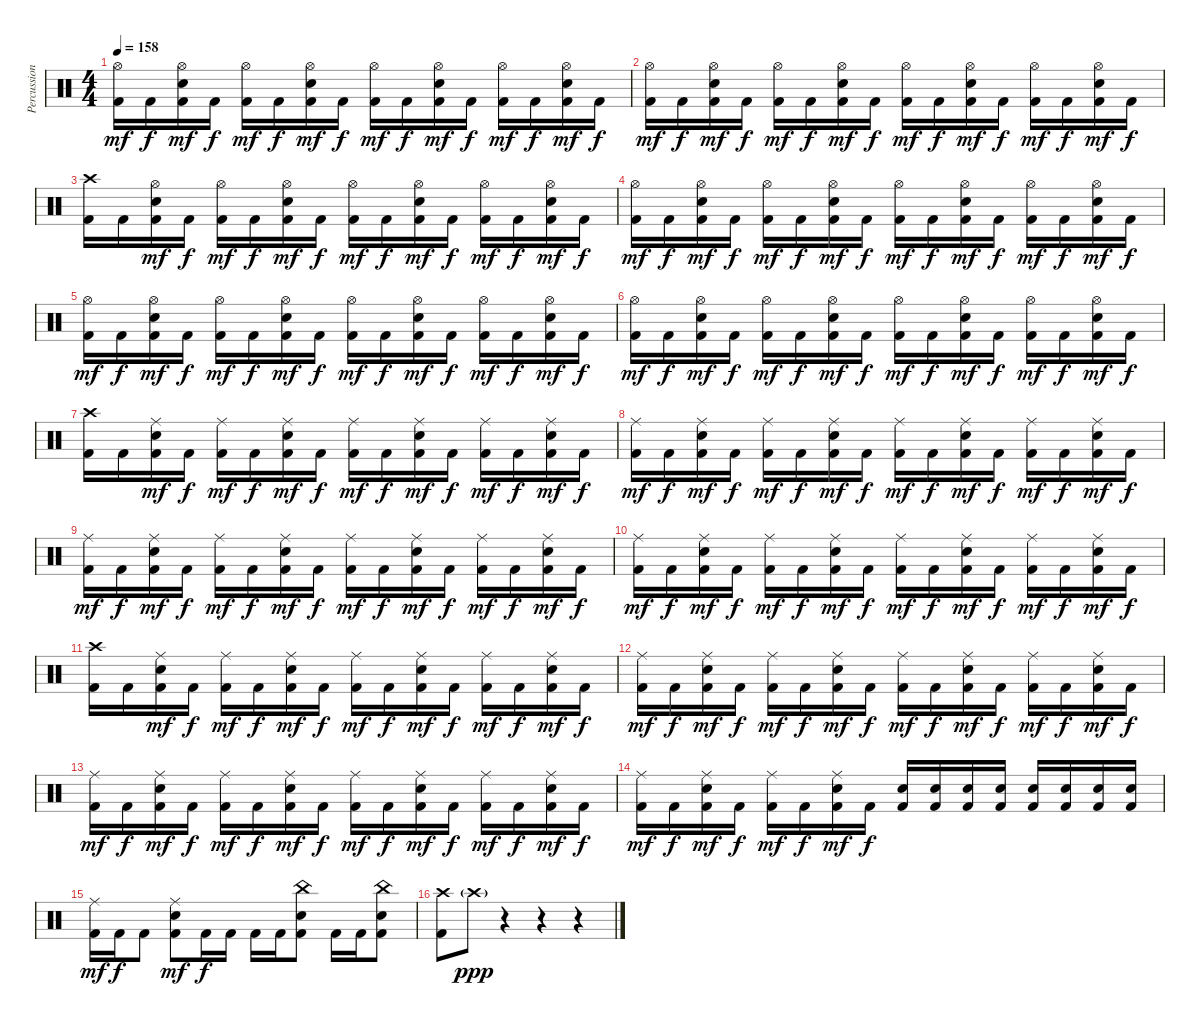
\track ("Percussion" "Percussion") {instrument percussion}
\staff {score}
\articulation defaults
\ts (4 4)
\tempo 158
\clef neutral
\ks c
("Hi-Hat (open)" "Kick (hit) 2").16{dy mf} "Kick (hit) 2".16{dy f} ("Hi-Hat (open)" "Electric Snare (hit)" "Kick (hit) 2").16{dy mf} "Kick (hit) 2".16{dy f} ("Hi-Hat (open)" "Kick (hit) 2").16{dy mf} "Kick (hit) 2".16{dy f} ("Hi-Hat (open)" "Electric Snare (hit)" "Kick (hit) 2").16{dy mf} "Kick (hit) 2".16{dy f} ("Hi-Hat (open)" "Kick (hit) 2").16{dy mf} "Kick (hit) 2".16{dy f} ("Hi-Hat (open)" "Electric Snare (hit)" "Kick (hit) 2").16{dy mf} "Kick (hit) 2".16{dy f} ("Hi-Hat (open)" "Kick (hit) 2").16{dy mf} "Kick (hit) 2".16{dy f} ("Hi-Hat (open)" "Electric Snare (hit)" "Kick (hit) 2").16{dy mf} "Kick (hit) 2".16{dy f} |
("Hi-Hat (open)" "Kick (hit) 2").16{dy mf} "Kick (hit) 2".16{dy f} ("Hi-Hat (open)" "Electric Snare (hit)" "Kick (hit) 2").16{dy mf} "Kick (hit) 2".16{dy f} ("Hi-Hat (open)" "Kick (hit) 2").16{dy mf} "Kick (hit) 2".16{dy f} ("Hi-Hat (open)" "Electric Snare (hit)" "Kick (hit) 2").16{dy mf} "Kick (hit) 2".16{dy f} ("Hi-Hat (open)" "Kick (hit) 2").16{dy mf} "Kick (hit) 2".16{dy f} ("Hi-Hat (open)" "Electric Snare (hit)" "Kick (hit) 2").16{dy mf} "Kick (hit) 2".16{dy f} ("Hi-Hat (open)" "Kick (hit) 2").16{dy mf} "Kick (hit) 2".16{dy f} ("Hi-Hat (open)" "Electric Snare (hit)" "Kick (hit) 2").16{dy mf} "Kick (hit) 2".16{dy f} |
("Crash high (hit)" "Kick (hit) 2").16 "Kick (hit) 2".16 ("Hi-Hat (open)" "Electric Snare (hit)" "Kick (hit) 2").16{dy mf} "Kick (hit) 2".16{dy f} ("Hi-Hat (open)" "Kick (hit) 2").16{dy mf} "Kick (hit) 2".16{dy f} ("Hi-Hat (open)" "Electric Snare (hit)" "Kick (hit) 2").16{dy mf} "Kick (hit) 2".16{dy f} ("Hi-Hat (open)" "Kick (hit) 2").16{dy mf} "Kick (hit) 2".16{dy f} ("Hi-Hat (open)" "Electric Snare (hit)" "Kick (hit) 2").16{dy mf} "Kick (hit) 2".16{dy f} ("Hi-Hat (open)" "Kick (hit) 2").16{dy mf} "Kick (hit) 2".16{dy f} ("Hi-Hat (open)" "Electric Snare (hit)" "Kick (hit) 2").16{dy mf} "Kick (hit) 2".16{dy f} |
("Hi-Hat (open)" "Kick (hit) 2").16{dy mf} "Kick (hit) 2".16{dy f} ("Hi-Hat (open)" "Electric Snare (hit)" "Kick (hit) 2").16{dy mf} "Kick (hit) 2".16{dy f} ("Hi-Hat (open)" "Kick (hit) 2").16{dy mf} "Kick (hit) 2".16{dy f} ("Hi-Hat (open)" "Electric Snare (hit)" "Kick (hit) 2").16{dy mf} "Kick (hit) 2".16{dy f} ("Hi-Hat (open)" "Kick (hit) 2").16{dy mf} "Kick (hit) 2".16{dy f} ("Hi-Hat (open)" "Electric Snare (hit)" "Kick (hit) 2").16{dy mf} "Kick (hit) 2".16{dy f} ("Hi-Hat (open)" "Kick (hit) 2").16{dy mf} "Kick (hit) 2".16{dy f} ("Hi-Hat (open)" "Electric Snare (hit)" "Kick (hit) 2").16{dy mf} "Kick (hit) 2".16{dy f} |
("Hi-Hat (open)" "Kick (hit) 2").16{dy mf} "Kick (hit) 2".16{dy f} ("Hi-Hat (open)" "Electric Snare (hit)" "Kick (hit) 2").16{dy mf} "Kick (hit) 2".16{dy f} ("Hi-Hat (open)" "Kick (hit) 2").16{dy mf} "Kick (hit) 2".16{dy f} ("Hi-Hat (open)" "Electric Snare (hit)" "Kick (hit) 2").16{dy mf} "Kick (hit) 2".16{dy f} ("Hi-Hat (open)" "Kick (hit) 2").16{dy mf} "Kick (hit) 2".16{dy f} ("Hi-Hat (open)" "Electric Snare (hit)" "Kick (hit) 2").16{dy mf} "Kick (hit) 2".16{dy f} ("Hi-Hat (open)" "Kick (hit) 2").16{dy mf} "Kick (hit) 2".16{dy f} ("Hi-Hat (open)" "Electric Snare (hit)" "Kick (hit) 2").16{dy mf} "Kick (hit) 2".16{dy f} |
("Hi-Hat (open)" "Kick (hit) 2").16{dy mf} "Kick (hit) 2".16{dy f} ("Hi-Hat (open)" "Electric Snare (hit)" "Kick (hit) 2").16{dy mf} "Kick (hit) 2".16{dy f} ("Hi-Hat (open)" "Kick (hit) 2").16{dy mf} "Kick (hit) 2".16{dy f} ("Hi-Hat (open)" "Electric Snare (hit)" "Kick (hit) 2").16{dy mf} "Kick (hit) 2".16{dy f} ("Hi-Hat (open)" "Kick (hit) 2").16{dy mf} "Kick (hit) 2".16{dy f} ("Hi-Hat (open)" "Electric Snare (hit)" "Kick (hit) 2").16{dy mf} "Kick (hit) 2".16{dy f} ("Hi-Hat (open)" "Kick (hit) 2").16{dy mf} "Kick (hit) 2".16{dy f} ("Hi-Hat (open)" "Electric Snare (hit)" "Kick (hit) 2").16{dy mf} "Kick (hit) 2".16{dy f} |
("Crash high (hit)" "Kick (hit) 2").16 "Kick (hit) 2".16 ("Ride (middle)" "Electric Snare (hit)" "Kick (hit) 2").16{dy mf} "Kick (hit) 2".16{dy f} ("Ride (middle)" "Kick (hit) 2").16{dy mf} "Kick (hit) 2".16{dy f} ("Ride (middle)" "Electric Snare (hit)" "Kick (hit) 2").16{dy mf} "Kick (hit) 2".16{dy f} ("Ride (middle)" "Kick (hit) 2").16{dy mf} "Kick (hit) 2".16{dy f} ("Ride (middle)" "Electric Snare (hit)" "Kick (hit) 2").16{dy mf} "Kick (hit) 2".16{dy f} ("Ride (middle)" "Kick (hit) 2").16{dy mf} "Kick (hit) 2".16{dy f} ("Ride (middle)" "Electric Snare (hit)" "Kick (hit) 2").16{dy mf} "Kick (hit) 2".16{dy f} |
("Ride (middle)" "Kick (hit) 2").16{dy mf} "Kick (hit) 2".16{dy f} ("Ride (middle)" "Electric Snare (hit)" "Kick (hit) 2").16{dy mf} "Kick (hit) 2".16{dy f} ("Ride (middle)" "Kick (hit) 2").16{dy mf} "Kick (hit) 2".16{dy f} ("Ride (middle)" "Electric Snare (hit)" "Kick (hit) 2").16{dy mf} "Kick (hit) 2".16{dy f} ("Ride (middle)" "Kick (hit) 2").16{dy mf} "Kick (hit) 2".16{dy f} ("Ride (middle)" "Electric Snare (hit)" "Kick (hit) 2").16{dy mf} "Kick (hit) 2".16{dy f} ("Ride (middle)" "Kick (hit) 2").16{dy mf} "Kick (hit) 2".16{dy f} ("Ride (middle)" "Electric Snare (hit)" "Kick (hit) 2").16{dy mf} "Kick (hit) 2".16{dy f} |
("Ride (middle)" "Kick (hit) 2").16{dy mf} "Kick (hit) 2".16{dy f} ("Ride (middle)" "Electric Snare (hit)" "Kick (hit) 2").16{dy mf} "Kick (hit) 2".16{dy f} ("Ride (middle)" "Kick (hit) 2").16{dy mf} "Kick (hit) 2".16{dy f} ("Ride (middle)" "Electric Snare (hit)" "Kick (hit) 2").16{dy mf} "Kick (hit) 2".16{dy f} ("Ride (middle)" "Kick (hit) 2").16{dy mf} "Kick (hit) 2".16{dy f} ("Ride (middle)" "Electric Snare (hit)" "Kick (hit) 2").16{dy mf} "Kick (hit) 2".16{dy f} ("Ride (middle)" "Kick (hit) 2").16{dy mf} "Kick (hit) 2".16{dy f} ("Ride (middle)" "Electric Snare (hit)" "Kick (hit) 2").16{dy mf} "Kick (hit) 2".16{dy f} |
("Ride (middle)" "Kick (hit) 2").16{dy mf} "Kick (hit) 2".16{dy f} ("Ride (middle)" "Electric Snare (hit)" "Kick (hit) 2").16{dy mf} "Kick (hit) 2".16{dy f} ("Ride (middle)" "Kick (hit) 2").16{dy mf} "Kick (hit) 2".16{dy f} ("Ride (middle)" "Electric Snare (hit)" "Kick (hit) 2").16{dy mf} "Kick (hit) 2".16{dy f} ("Ride (middle)" "Kick (hit) 2").16{dy mf} "Kick (hit) 2".16{dy f} ("Ride (middle)" "Electric Snare (hit)" "Kick (hit) 2").16{dy mf} "Kick (hit) 2".16{dy f} ("Ride (middle)" "Kick (hit) 2").16{dy mf} "Kick (hit) 2".16{dy f} ("Ride (middle)" "Electric Snare (hit)" "Kick (hit) 2").16{dy mf} "Kick (hit) 2".16{dy f} |
("Crash high (hit)" "Kick (hit) 2").16 "Kick (hit) 2".16 ("Ride (middle)" "Electric Snare (hit)" "Kick (hit) 2").16{dy mf} "Kick (hit) 2".16{dy f} ("Ride (middle)" "Kick (hit) 2").16{dy mf} "Kick (hit) 2".16{dy f} ("Ride (middle)" "Electric Snare (hit)" "Kick (hit) 2").16{dy mf} "Kick (hit) 2".16{dy f} ("Ride (middle)" "Kick (hit) 2").16{dy mf} "Kick (hit) 2".16{dy f} ("Ride (middle)" "Electric Snare (hit)" "Kick (hit) 2").16{dy mf} "Kick (hit) 2".16{dy f} ("Ride (middle)" "Kick (hit) 2").16{dy mf} "Kick (hit) 2".16{dy f} ("Ride (middle)" "Electric Snare (hit)" "Kick (hit) 2").16{dy mf} "Kick (hit) 2".16{dy f} |
("Ride (middle)" "Kick (hit) 2").16{dy mf} "Kick (hit) 2".16{dy f} ("Ride (middle)" "Electric Snare (hit)" "Kick (hit) 2").16{dy mf} "Kick (hit) 2".16{dy f} ("Ride (middle)" "Kick (hit) 2").16{dy mf} "Kick (hit) 2".16{dy f} ("Ride (middle)" "Electric Snare (hit)" "Kick (hit) 2").16{dy mf} "Kick (hit) 2".16{dy f} ("Ride (middle)" "Kick (hit) 2").16{dy mf} "Kick (hit) 2".16{dy f} ("Ride (middle)" "Electric Snare (hit)" "Kick (hit) 2").16{dy mf} "Kick (hit) 2".16{dy f} ("Ride (middle)" "Kick (hit) 2").16{dy mf} "Kick (hit) 2".16{dy f} ("Ride (middle)" "Electric Snare (hit)" "Kick (hit) 2").16{dy mf} "Kick (hit) 2".16{dy f} |
("Ride (middle)" "Kick (hit) 2").16{dy mf} "Kick (hit) 2".16{dy f} ("Ride (middle)" "Electric Snare (hit)" "Kick (hit) 2").16{dy mf} "Kick (hit) 2".16{dy f} ("Ride (middle)" "Kick (hit) 2").16{dy mf} "Kick (hit) 2".16{dy f} ("Ride (middle)" "Electric Snare (hit)" "Kick (hit) 2").16{dy mf} "Kick (hit) 2".16{dy f} ("Ride (middle)" "Kick (hit) 2").16{dy mf} "Kick (hit) 2".16{dy f} ("Ride (middle)" "Electric Snare (hit)" "Kick (hit) 2").16{dy mf} "Kick (hit) 2".16{dy f} ("Ride (middle)" "Kick (hit) 2").16{dy mf} "Kick (hit) 2".16{dy f} ("Ride (middle)" "Electric Snare (hit)" "Kick (hit) 2").16{dy mf} "Kick (hit) 2".16{dy f} |
("Ride (middle)" "Kick (hit) 2").16{dy mf} "Kick (hit) 2".16{dy f} ("Ride (middle)" "Electric Snare (hit)" "Kick (hit) 2").16{dy mf} "Kick (hit) 2".16{dy f} ("Ride (middle)" "Kick (hit) 2").16{dy mf} "Kick (hit) 2".16{dy f} ("Ride (middle)" "Electric Snare (hit)" "Kick (hit) 2").16{dy mf} "Kick (hit) 2".16{dy f} ("Electric Snare (hit)" "Kick (hit) 2").16 ("Electric Snare (hit)" "Kick (hit) 2").16 ("Electric Snare (hit)" "Kick (hit) 2").16 ("Electric Snare (hit)" "Kick (hit) 2").16 ("Electric Snare (hit)" "Kick (hit) 2").16 ("Electric Snare (hit)" "Kick (hit) 2").16 ("Electric Snare (hit)" "Kick (hit) 2").16 ("Electric Snare (hit)" "Kick (hit) 2").16 |
("Ride (middle)" "Kick (hit) 2").16{dy mf} "Kick (hit) 2".16{dy f} "Kick (hit) 2".8 ("Ride (middle)" "Electric Snare (hit)" "Kick (hit) 2").8{dy mf} "Kick (hit) 2".16{dy f} "Kick (hit) 2".16 "Kick (hit) 2".16 "Kick (hit) 2".16 ("China (hit)" "Electric Snare (hit)" "Kick (hit) 2").8 "Kick (hit) 2".16 "Kick (hit) 2".16 ("China (hit)" "Electric Snare (hit)" "Kick (hit) 2").8 |
("Crash high (hit)" "Kick (hit) 2").8 "Crash high (hit)"{g}.8{dy ppp volume 0} r.4 r.4 r.4
